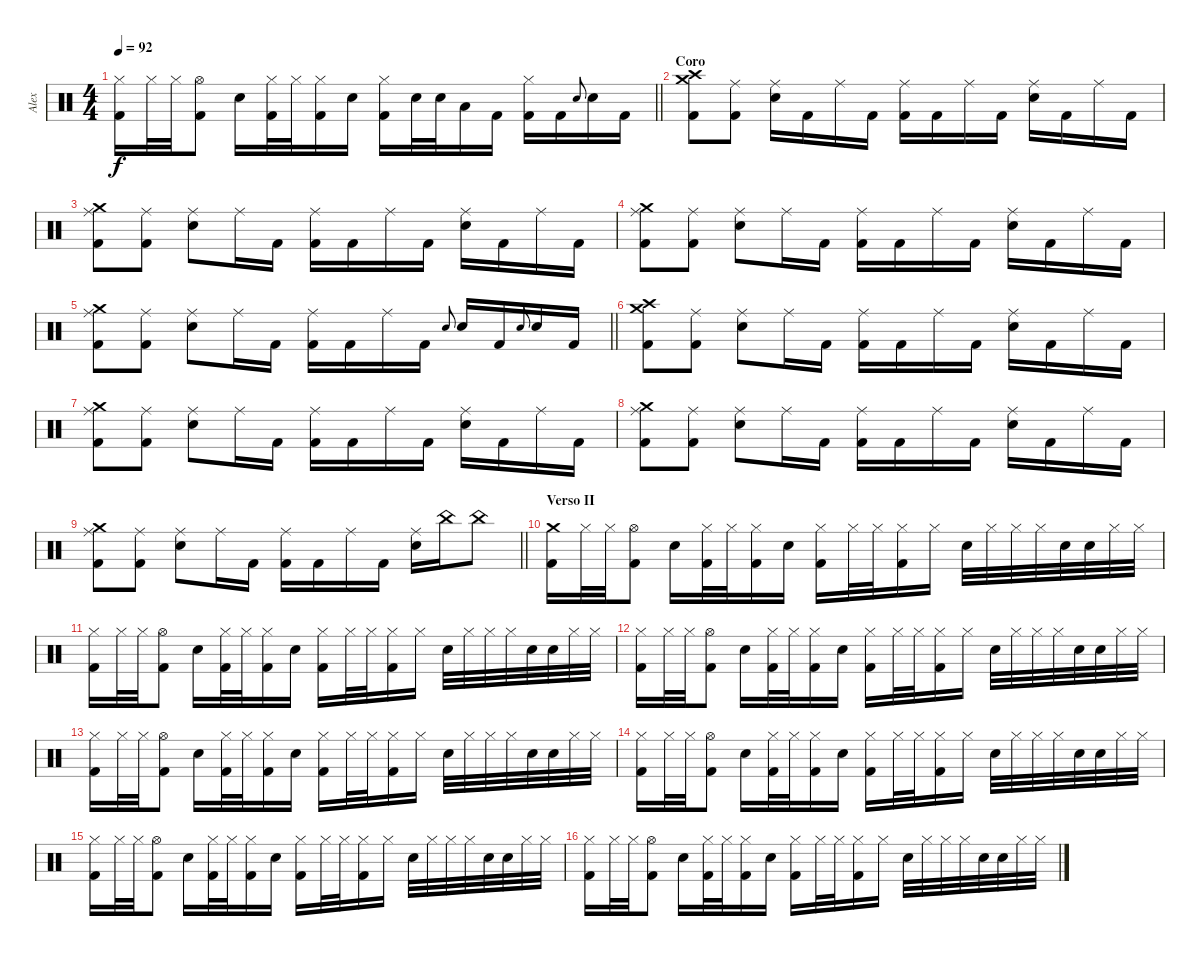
\track ("Alex" "Alex") {instrument percussion}
\staff
\articulation defaults
\ts (4 4)
\tempo 92
\clef neutral
\barLineRight lightlight
\ks c
("Hi-Hat (closed)" "Kick (hit) 2").16{dy f} "Hi-Hat (closed)".32 "Hi-Hat (closed)".32 ("Hi-Hat (open)" "Kick (hit) 2").8 "Electric Snare (hit)".16 ("Hi-Hat (closed)" "Kick (hit) 2").32 "Hi-Hat (closed)".32 ("Hi-Hat (closed)" "Kick (hit) 2").16 "Electric Snare (hit)".16 ("Hi-Hat (closed)" "Kick (hit) 2").16 "Electric Snare (hit)".32 "Electric Snare (hit)".32 "Low Tom (hit)".16 "Kick (hit) 2".16 ("Hi-Hat (closed)" "Kick (hit) 2").16 "Kick (hit) 2".16 "Electric Snare (hit)".8{gr onbeat} "Electric Snare (hit)".16 "Kick (hit) 2".16 |
\section ("" "Coro")
("Crash medium (hit)" "Crash high (hit)" "Kick (hit) 2").8 ("Ride (middle)" "Kick (hit) 2").8 ("Ride (middle)" "Electric Snare (hit)").16 "Kick (hit) 2".16 "Ride (middle)".16 "Kick (hit) 2".16 ("Ride (middle)" "Kick (hit) 2").16 "Kick (hit) 2".16 "Ride (middle)".16 "Kick (hit) 2".16 ("Ride (middle)" "Electric Snare (hit)").16 "Kick (hit) 2".16 "Ride (middle)".16 "Kick (hit) 2".16 |
("Crash medium (hit)" "Ride (middle)" "Kick (hit) 2").8 ("Ride (middle)" "Kick (hit) 2").8 ("Ride (middle)" "Electric Snare (hit)").8 "Ride (middle)".16 "Kick (hit) 2".16 ("Ride (middle)" "Kick (hit) 2").16 "Kick (hit) 2".16 "Ride (middle)".16 "Kick (hit) 2".16 ("Ride (middle)" "Electric Snare (hit)").16 "Kick (hit) 2".16 "Ride (middle)".16 "Kick (hit) 2".16 |
("Crash medium (hit)" "Ride (middle)" "Kick (hit) 2").8 ("Ride (middle)" "Kick (hit) 2").8 ("Ride (middle)" "Electric Snare (hit)").8 "Ride (middle)".16 "Kick (hit) 2".16 ("Ride (middle)" "Kick (hit) 2").16 "Kick (hit) 2".16 "Ride (middle)".16 "Kick (hit) 2".16 ("Ride (middle)" "Electric Snare (hit)").16 "Kick (hit) 2".16 "Ride (middle)".16 "Kick (hit) 2".16 |
\barLineRight lightlight
("Crash medium (hit)" "Ride (middle)" "Kick (hit) 2").8 ("Ride (middle)" "Kick (hit) 2").8 ("Ride (middle)" "Electric Snare (hit)").8 "Ride (middle)".16 "Kick (hit) 2".16 ("Ride (middle)" "Kick (hit) 2").16 "Kick (hit) 2".16 "Ride (middle)".16 "Kick (hit) 2".16 "Electric Snare (hit)".8{gr onbeat} "Electric Snare (hit)".16 "Kick (hit) 2".16 "Electric Snare (hit)".8{gr onbeat} "Electric Snare (hit)".16 "Kick (hit) 2".16 |
("Crash medium (hit)" "Crash high (hit)" "Kick (hit) 2").8 ("Ride (middle)" "Kick (hit) 2").8 ("Ride (middle)" "Electric Snare (hit)").8 "Ride (middle)".16 "Kick (hit) 2".16 ("Ride (middle)" "Kick (hit) 2").16 "Kick (hit) 2".16 "Ride (middle)".16 "Kick (hit) 2".16 ("Ride (middle)" "Electric Snare (hit)").16 "Kick (hit) 2".16 "Ride (middle)".16 "Kick (hit) 2".16 |
("Crash medium (hit)" "Ride (middle)" "Kick (hit) 2").8 ("Ride (middle)" "Kick (hit) 2").8 ("Ride (middle)" "Electric Snare (hit)").8 "Ride (middle)".16 "Kick (hit) 2".16 ("Ride (middle)" "Kick (hit) 2").16 "Kick (hit) 2".16 "Ride (middle)".16 "Kick (hit) 2".16 ("Ride (middle)" "Electric Snare (hit)").16 "Kick (hit) 2".16 "Ride (middle)".16 "Kick (hit) 2".16 |
("Crash medium (hit)" "Ride (middle)" "Kick (hit) 2").8 ("Ride (middle)" "Kick (hit) 2").8 ("Ride (middle)" "Electric Snare (hit)").8 "Ride (middle)".16 "Kick (hit) 2".16 ("Ride (middle)" "Kick (hit) 2").16 "Kick (hit) 2".16 "Ride (middle)".16 "Kick (hit) 2".16 ("Ride (middle)" "Electric Snare (hit)").16 "Kick (hit) 2".16 "Ride (middle)".16 "Kick (hit) 2".16 |
\barLineRight lightlight
("Crash medium (hit)" "Ride (middle)" "Kick (hit) 2").8 ("Ride (middle)" "Kick (hit) 2").8 ("Ride (middle)" "Electric Snare (hit)").8 "Ride (middle)".16 "Kick (hit) 2".16 ("Ride (middle)" "Kick (hit) 2").16 "Kick (hit) 2".16 "Ride (middle)".16 "Kick (hit) 2".16 ("Ride (middle)" "Electric Snare (hit)").16 "China (hit)".16 "China (hit)".8 |
\section ("" "Verso II")
("Crash medium (hit)" "Kick (hit) 2").16 "Hi-Hat (closed)".32 "Hi-Hat (closed)".32 ("Hi-Hat (open)" "Kick (hit) 2").8 "Electric Snare (hit)".16 ("Hi-Hat (closed)" "Kick (hit) 2").32 "Hi-Hat (closed)".32 ("Hi-Hat (closed)" "Kick (hit) 2").16 "Electric Snare (hit)".16 ("Hi-Hat (closed)" "Kick (hit) 2").16 "Hi-Hat (closed)".32 "Hi-Hat (closed)".32 ("Hi-Hat (closed)" "Kick (hit) 2").16 "Hi-Hat (closed)".16 "Electric Snare (hit)".32 "Hi-Hat (closed)".32 "Hi-Hat (closed)".32 "Hi-Hat (closed)".32 "Electric Snare (hit)".32 "Electric Snare (hit)".32 "Hi-Hat (closed)".32 "Hi-Hat (closed)".32 |
("Hi-Hat (closed)" "Kick (hit) 2").16 "Hi-Hat (closed)".32 "Hi-Hat (closed)".32 ("Hi-Hat (open)" "Kick (hit) 2").8 "Electric Snare (hit)".16 ("Hi-Hat (closed)" "Kick (hit) 2").32 "Hi-Hat (closed)".32 ("Hi-Hat (closed)" "Kick (hit) 2").16 "Electric Snare (hit)".16 ("Hi-Hat (closed)" "Kick (hit) 2").16 "Hi-Hat (closed)".32 "Hi-Hat (closed)".32 ("Hi-Hat (closed)" "Kick (hit) 2").16 "Hi-Hat (closed)".16 "Electric Snare (hit)".32 "Hi-Hat (closed)".32 "Hi-Hat (closed)".32 "Hi-Hat (closed)".32 "Electric Snare (hit)".32 "Electric Snare (hit)".32 "Hi-Hat (closed)".32 "Hi-Hat (closed)".32 |
("Hi-Hat (closed)" "Kick (hit) 2").16 "Hi-Hat (closed)".32 "Hi-Hat (closed)".32 ("Hi-Hat (open)" "Kick (hit) 2").8 "Electric Snare (hit)".16 ("Hi-Hat (closed)" "Kick (hit) 2").32 "Hi-Hat (closed)".32 ("Hi-Hat (closed)" "Kick (hit) 2").16 "Electric Snare (hit)".16 ("Hi-Hat (closed)" "Kick (hit) 2").16 "Hi-Hat (closed)".32 "Hi-Hat (closed)".32 ("Hi-Hat (closed)" "Kick (hit) 2").16 "Hi-Hat (closed)".16 "Electric Snare (hit)".32 "Hi-Hat (closed)".32 "Hi-Hat (closed)".32 "Hi-Hat (closed)".32 "Electric Snare (hit)".32 "Electric Snare (hit)".32 "Hi-Hat (closed)".32 "Hi-Hat (closed)".32 |
("Hi-Hat (closed)" "Kick (hit) 2").16 "Hi-Hat (closed)".32 "Hi-Hat (closed)".32 ("Hi-Hat (open)" "Kick (hit) 2").8 "Electric Snare (hit)".16 ("Hi-Hat (closed)" "Kick (hit) 2").32 "Hi-Hat (closed)".32 ("Hi-Hat (closed)" "Kick (hit) 2").16 "Electric Snare (hit)".16 ("Hi-Hat (closed)" "Kick (hit) 2").16 "Hi-Hat (closed)".32 "Hi-Hat (closed)".32 ("Hi-Hat (closed)" "Kick (hit) 2").16 "Hi-Hat (closed)".16 "Electric Snare (hit)".32 "Hi-Hat (closed)".32 "Hi-Hat (closed)".32 "Hi-Hat (closed)".32 "Electric Snare (hit)".32 "Electric Snare (hit)".32 "Hi-Hat (closed)".32 "Hi-Hat (closed)".32 |
("Hi-Hat (closed)" "Kick (hit) 2").16 "Hi-Hat (closed)".32 "Hi-Hat (closed)".32 ("Hi-Hat (open)" "Kick (hit) 2").8 "Electric Snare (hit)".16 ("Hi-Hat (closed)" "Kick (hit) 2").32 "Hi-Hat (closed)".32 ("Hi-Hat (closed)" "Kick (hit) 2").16 "Electric Snare (hit)".16 ("Hi-Hat (closed)" "Kick (hit) 2").16 "Hi-Hat (closed)".32 "Hi-Hat (closed)".32 ("Hi-Hat (closed)" "Kick (hit) 2").16 "Hi-Hat (closed)".16 "Electric Snare (hit)".32 "Hi-Hat (closed)".32 "Hi-Hat (closed)".32 "Hi-Hat (closed)".32 "Electric Snare (hit)".32 "Electric Snare (hit)".32 "Hi-Hat (closed)".32 "Hi-Hat (closed)".32 |
("Hi-Hat (closed)" "Kick (hit) 2").16 "Hi-Hat (closed)".32 "Hi-Hat (closed)".32 ("Hi-Hat (open)" "Kick (hit) 2").8 "Electric Snare (hit)".16 ("Hi-Hat (closed)" "Kick (hit) 2").32 "Hi-Hat (closed)".32 ("Hi-Hat (closed)" "Kick (hit) 2").16 "Electric Snare (hit)".16 ("Hi-Hat (closed)" "Kick (hit) 2").16 "Hi-Hat (closed)".32 "Hi-Hat (closed)".32 ("Hi-Hat (closed)" "Kick (hit) 2").16 "Hi-Hat (closed)".16 "Electric Snare (hit)".32 "Hi-Hat (closed)".32 "Hi-Hat (closed)".32 "Hi-Hat (closed)".32 "Electric Snare (hit)".32 "Electric Snare (hit)".32 "Hi-Hat (closed)".32 "Hi-Hat (closed)".32 |
("Hi-Hat (closed)" "Kick (hit) 2").16 "Hi-Hat (closed)".32 "Hi-Hat (closed)".32 ("Hi-Hat (open)" "Kick (hit) 2").8 "Electric Snare (hit)".16 ("Hi-Hat (closed)" "Kick (hit) 2").32 "Hi-Hat (closed)".32 ("Hi-Hat (closed)" "Kick (hit) 2").16 "Electric Snare (hit)".16 ("Hi-Hat (closed)" "Kick (hit) 2").16 "Hi-Hat (closed)".32 "Hi-Hat (closed)".32 ("Hi-Hat (closed)" "Kick (hit) 2").16 "Hi-Hat (closed)".16 "Electric Snare (hit)".32 "Hi-Hat (closed)".32 "Hi-Hat (closed)".32 "Hi-Hat (closed)".32 "Electric Snare (hit)".32 "Electric Snare (hit)".32 "Hi-Hat (closed)".32 "Hi-Hat (closed)".32
